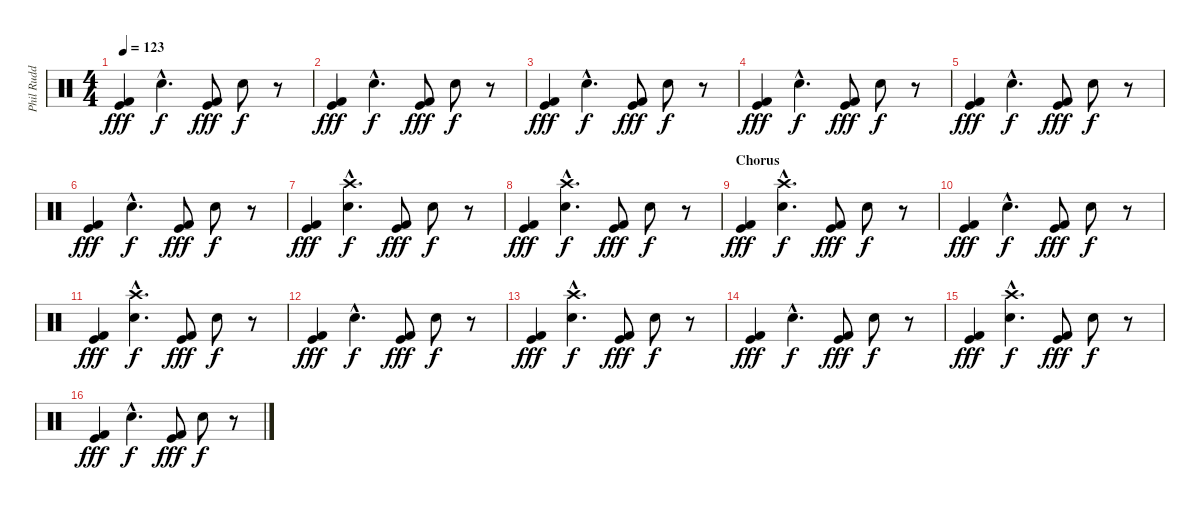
\track ("Phil Rudd (Drums)" "Phil Rudd ") {instrument percussion}
\staff {score}
\articulation defaults
\ts (4 4)
\tempo 123
\clef neutral
\ks c
("Kick (hit) 2" "Kick (hit)").4{dy fff} "Snare (hit) 2"{hac}.4{d dy f} ("Kick (hit) 2" "Kick (hit)").8{dy fff} "Snare (hit) 2".8{dy f} r.8 |
("Kick (hit) 2" "Kick (hit)").4{dy fff} "Snare (hit) 2"{hac}.4{d dy f} ("Kick (hit) 2" "Kick (hit)").8{dy fff} "Snare (hit) 2".8{dy f} r.8 |
("Kick (hit) 2" "Kick (hit)").4{dy fff} "Snare (hit) 2"{hac}.4{d dy f} ("Kick (hit) 2" "Kick (hit)").8{dy fff} "Snare (hit) 2".8{dy f} r.8 |
("Kick (hit) 2" "Kick (hit)").4{dy fff} "Snare (hit) 2"{hac}.4{d dy f} ("Kick (hit) 2" "Kick (hit)").8{dy fff} "Snare (hit) 2".8{dy f} r.8 |
("Kick (hit) 2" "Kick (hit)").4{dy fff} "Snare (hit) 2"{hac}.4{d dy f} ("Kick (hit) 2" "Kick (hit)").8{dy fff} "Snare (hit) 2".8{dy f} r.8 |
("Kick (hit) 2" "Kick (hit)").4{dy fff} "Snare (hit) 2"{hac}.4{d dy f} ("Kick (hit) 2" "Kick (hit)").8{dy fff} "Snare (hit) 2".8{dy f} r.8 |
("Kick (hit) 2" "Kick (hit)").4{dy fff} ("Snare (hit) 2"{hac} "Crash high (hit)"{hac}).4{d dy f} ("Kick (hit) 2" "Kick (hit)").8{dy fff} "Snare (hit) 2".8{dy f} r.8 |
("Kick (hit) 2" "Kick (hit)").4{dy fff} ("Snare (hit) 2"{hac} "Crash high (hit)"{hac}).4{d dy f} ("Kick (hit) 2" "Kick (hit)").8{dy fff} "Snare (hit) 2".8{dy f} r.8 |
\section ("" "Chorus")
("Kick (hit) 2" "Kick (hit)").4{dy fff} ("Snare (hit) 2"{hac} "Crash high (hit)"{hac}).4{d dy f} ("Kick (hit) 2" "Kick (hit)").8{dy fff} "Snare (hit) 2".8{dy f} r.8 |
("Kick (hit) 2" "Kick (hit)").4{dy fff} "Snare (hit) 2"{hac}.4{d dy f} ("Kick (hit) 2" "Kick (hit)").8{dy fff} "Snare (hit) 2".8{dy f} r.8 |
("Kick (hit) 2" "Kick (hit)").4{dy fff} ("Snare (hit) 2"{hac} "Crash high (hit)"{hac}).4{d dy f} ("Kick (hit) 2" "Kick (hit)").8{dy fff} "Snare (hit) 2".8{dy f} r.8 |
("Kick (hit) 2" "Kick (hit)").4{dy fff} "Snare (hit) 2"{hac}.4{d dy f} ("Kick (hit) 2" "Kick (hit)").8{dy fff} "Snare (hit) 2".8{dy f} r.8 |
("Kick (hit) 2" "Kick (hit)").4{dy fff} ("Snare (hit) 2"{hac} "Crash high (hit)"{hac}).4{d dy f} ("Kick (hit) 2" "Kick (hit)").8{dy fff} "Snare (hit) 2".8{dy f} r.8 |
("Kick (hit) 2" "Kick (hit)").4{dy fff} "Snare (hit) 2"{hac}.4{d dy f} ("Kick (hit) 2" "Kick (hit)").8{dy fff} "Snare (hit) 2".8{dy f} r.8 |
("Kick (hit) 2" "Kick (hit)").4{dy fff} ("Snare (hit) 2"{hac} "Crash high (hit)"{hac}).4{d dy f} ("Kick (hit) 2" "Kick (hit)").8{dy fff} "Snare (hit) 2".8{dy f} r.8 |
("Kick (hit) 2" "Kick (hit)").4{dy fff} "Snare (hit) 2"{hac}.4{d dy f} ("Kick (hit) 2" "Kick (hit)").8{dy fff} "Snare (hit) 2".8{dy f} r.8
